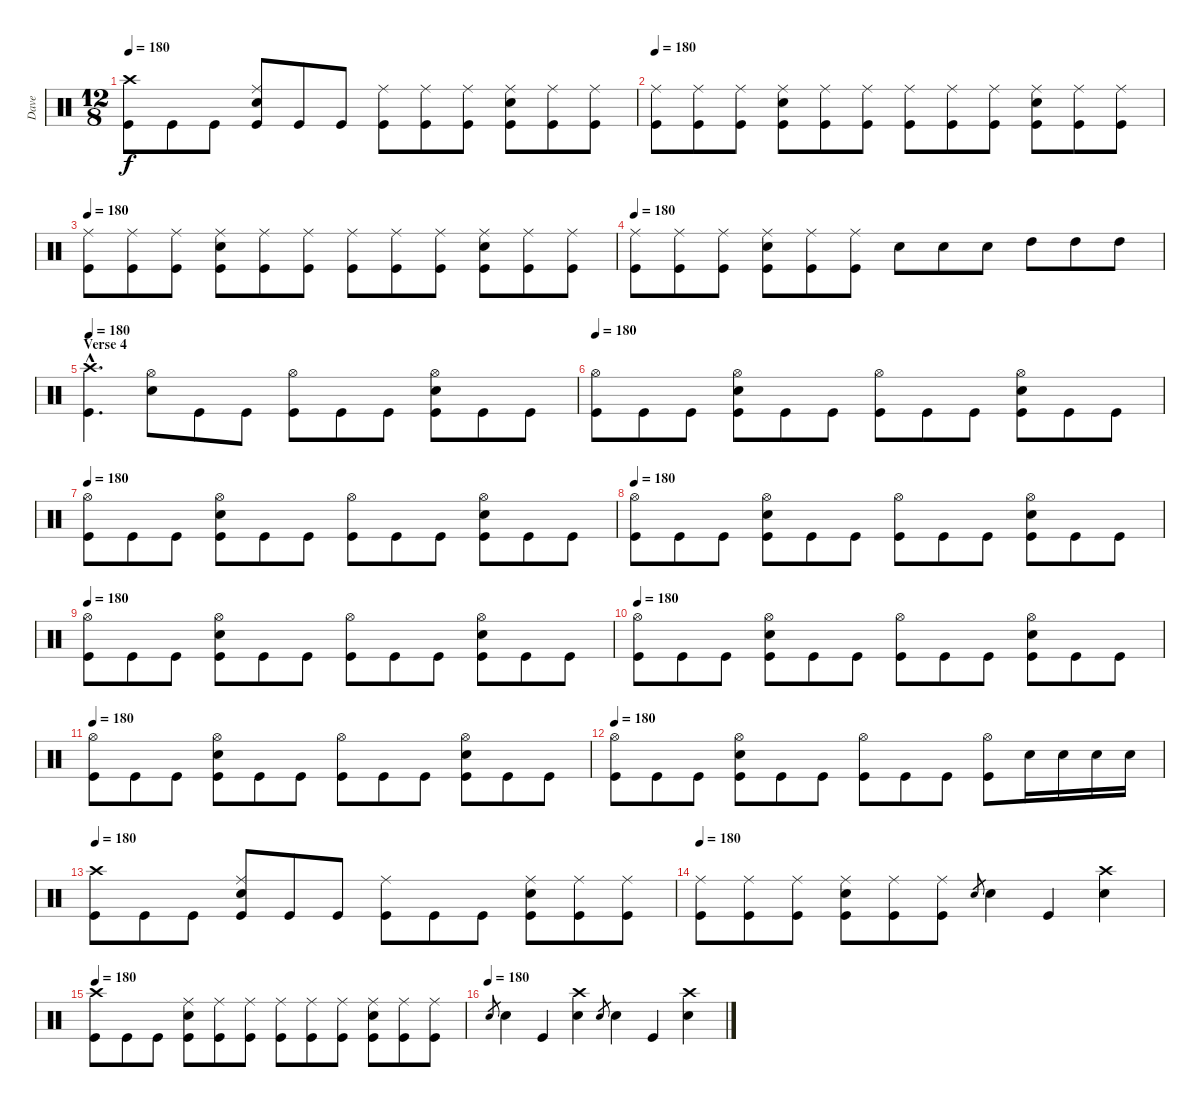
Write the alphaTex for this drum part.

\track ("Dave" "Dave") {instrument percussion}
\staff {score}
\articulation defaults
\ts (12 8)
\tempo 180
\clef neutral
\ks c
("Crash high (hit)" "Kick (hit)").8{dy f} "Kick (hit)".8 "Kick (hit)".8 ("Ride (middle)" "Snare (hit) 2" "Kick (hit)").8 "Kick (hit)".8 "Kick (hit)".8 ("Ride (middle)" "Kick (hit)").8 ("Ride (middle)" "Kick (hit)").8 ("Ride (middle)" "Kick (hit)").8 ("Ride (middle)" "Snare (hit) 2" "Kick (hit)").8 ("Ride (middle)" "Kick (hit)").8 ("Ride (middle)" "Kick (hit)").8 |
\tempo 180
("Ride (middle)" "Kick (hit)").8 ("Ride (middle)" "Kick (hit)").8 ("Ride (middle)" "Kick (hit)").8 ("Ride (middle)" "Snare (hit) 2" "Kick (hit)").8 ("Ride (middle)" "Kick (hit)").8 ("Ride (middle)" "Kick (hit)").8 ("Ride (middle)" "Kick (hit)").8 ("Ride (middle)" "Kick (hit)").8 ("Ride (middle)" "Kick (hit)").8 ("Ride (middle)" "Snare (hit) 2" "Kick (hit)").8 ("Ride (middle)" "Kick (hit)").8 ("Ride (middle)" "Kick (hit)").8 |
\tempo 180
("Ride (middle)" "Kick (hit)").8 ("Ride (middle)" "Kick (hit)").8 ("Ride (middle)" "Kick (hit)").8 ("Ride (middle)" "Snare (hit) 2" "Kick (hit)").8 ("Ride (middle)" "Kick (hit)").8 ("Ride (middle)" "Kick (hit)").8 ("Ride (middle)" "Kick (hit)").8 ("Ride (middle)" "Kick (hit)").8 ("Ride (middle)" "Kick (hit)").8 ("Ride (middle)" "Snare (hit) 2" "Kick (hit)").8 ("Ride (middle)" "Kick (hit)").8 ("Ride (middle)" "Kick (hit)").8 |
\tempo 180
("Ride (middle)" "Kick (hit)").8 ("Ride (middle)" "Kick (hit)").8 ("Ride (middle)" "Kick (hit)").8 ("Ride (middle)" "Snare (hit) 2" "Kick (hit)").8 ("Ride (middle)" "Kick (hit)").8 ("Ride (middle)" "Kick (hit)").8 "Snare (hit) 2".8 "Snare (hit) 2".8 "Snare (hit) 2".8 "High Tom (hit)".8 "High Tom (hit)".8 "High Tom (hit)".8 |
\section ("" "Verse 4")
\tempo 180
("Crash high (hit)"{hac} "Kick (hit)"{hac}).4{d} ("Hi-Hat (open)" "Snare (hit) 2").8 "Kick (hit)".8 "Kick (hit)".8 ("Hi-Hat (open)" "Kick (hit)").8 "Kick (hit)".8 "Kick (hit)".8 ("Hi-Hat (open)" "Snare (hit) 2" "Kick (hit)").8 "Kick (hit)".8 "Kick (hit)".8 |
\tempo 180
("Hi-Hat (open)" "Kick (hit)").8 "Kick (hit)".8 "Kick (hit)".8 ("Hi-Hat (open)" "Snare (hit) 2" "Kick (hit)").8 "Kick (hit)".8 "Kick (hit)".8 ("Hi-Hat (open)" "Kick (hit)").8 "Kick (hit)".8 "Kick (hit)".8 ("Hi-Hat (open)" "Snare (hit) 2" "Kick (hit)").8 "Kick (hit)".8 "Kick (hit)".8 |
\tempo 180
("Hi-Hat (open)" "Kick (hit)").8 "Kick (hit)".8 "Kick (hit)".8 ("Hi-Hat (open)" "Snare (hit) 2" "Kick (hit)").8 "Kick (hit)".8 "Kick (hit)".8 ("Hi-Hat (open)" "Kick (hit)").8 "Kick (hit)".8 "Kick (hit)".8 ("Hi-Hat (open)" "Snare (hit) 2" "Kick (hit)").8 "Kick (hit)".8 "Kick (hit)".8 |
\tempo 180
("Hi-Hat (open)" "Kick (hit)").8 "Kick (hit)".8 "Kick (hit)".8 ("Hi-Hat (open)" "Snare (hit) 2" "Kick (hit)").8 "Kick (hit)".8 "Kick (hit)".8 ("Hi-Hat (open)" "Kick (hit)").8 "Kick (hit)".8 "Kick (hit)".8 ("Hi-Hat (open)" "Snare (hit) 2" "Kick (hit)").8 "Kick (hit)".8 "Kick (hit)".8 |
\tempo 180
("Hi-Hat (open)" "Kick (hit)").8 "Kick (hit)".8 "Kick (hit)".8 ("Hi-Hat (open)" "Snare (hit) 2" "Kick (hit)").8 "Kick (hit)".8 "Kick (hit)".8 ("Hi-Hat (open)" "Kick (hit)").8 "Kick (hit)".8 "Kick (hit)".8 ("Hi-Hat (open)" "Snare (hit) 2" "Kick (hit)").8 "Kick (hit)".8 "Kick (hit)".8 |
\tempo 180
("Hi-Hat (open)" "Kick (hit)").8 "Kick (hit)".8 "Kick (hit)".8 ("Hi-Hat (open)" "Snare (hit) 2" "Kick (hit)").8 "Kick (hit)".8 "Kick (hit)".8 ("Hi-Hat (open)" "Kick (hit)").8 "Kick (hit)".8 "Kick (hit)".8 ("Hi-Hat (open)" "Snare (hit) 2" "Kick (hit)").8 "Kick (hit)".8 "Kick (hit)".8 |
\tempo 180
("Hi-Hat (open)" "Kick (hit)").8 "Kick (hit)".8 "Kick (hit)".8 ("Hi-Hat (open)" "Snare (hit) 2" "Kick (hit)").8 "Kick (hit)".8 "Kick (hit)".8 ("Hi-Hat (open)" "Kick (hit)").8 "Kick (hit)".8 "Kick (hit)".8 ("Hi-Hat (open)" "Snare (hit) 2" "Kick (hit)").8 "Kick (hit)".8 "Kick (hit)".8 |
\tempo 180
("Hi-Hat (open)" "Kick (hit)").8 "Kick (hit)".8 "Kick (hit)".8 ("Hi-Hat (open)" "Snare (hit) 2" "Kick (hit)").8 "Kick (hit)".8 "Kick (hit)".8 ("Hi-Hat (open)" "Kick (hit)").8 "Kick (hit)".8 "Kick (hit)".8 ("Hi-Hat (open)" "Kick (hit)").8 "Snare (hit) 2".16 "Snare (hit) 2".16 "Snare (hit) 2".16 "Snare (hit) 2".16 |
\tempo 180
("Crash high (hit)" "Kick (hit)").8 "Kick (hit)".8 "Kick (hit)".8 ("Ride (middle)" "Snare (hit) 2" "Kick (hit)").8 "Kick (hit)".8 "Kick (hit)".8 ("Ride (middle)" "Kick (hit)").8 "Kick (hit)".8 "Kick (hit)".8 ("Ride (middle)" "Snare (hit) 2" "Kick (hit)").8 ("Ride (middle)" "Kick (hit)").8 ("Ride (middle)" "Kick (hit)").8 |
\tempo 180
("Ride (middle)" "Kick (hit)").8 ("Ride (middle)" "Kick (hit)").8 ("Ride (middle)" "Kick (hit)").8 ("Ride (middle)" "Snare (hit) 2" "Kick (hit)").8 ("Ride (middle)" "Kick (hit)").8 ("Ride (middle)" "Kick (hit)").8 "Snare (hit) 2".8{gr} "Snare (hit) 2".4 "Kick (hit)".4 ("Crash high (hit)" "Snare (hit) 2").4 |
\tempo 180
("Crash high (hit)" "Kick (hit)").8 "Kick (hit)".8 "Kick (hit)".8 ("Ride (middle)" "Snare (hit) 2" "Kick (hit)").8 ("Ride (middle)" "Kick (hit)").8 ("Ride (middle)" "Kick (hit)").8 ("Ride (middle)" "Kick (hit)").8 ("Ride (middle)" "Kick (hit)").8 ("Ride (middle)" "Kick (hit)").8 ("Ride (middle)" "Snare (hit) 2" "Kick (hit)").8 ("Ride (middle)" "Kick (hit)").8 ("Ride (middle)" "Kick (hit)").8 |
\tempo (180)
"Snare (hit) 2".8{gr} "Snare (hit) 2".4 "Kick (hit)".4 ("Crash high (hit)" "Snare (hit) 2").4 "Snare (hit) 2".8{gr} "Snare (hit) 2".4 "Kick (hit)".4 ("Crash high (hit)" "Snare (hit) 2").4
